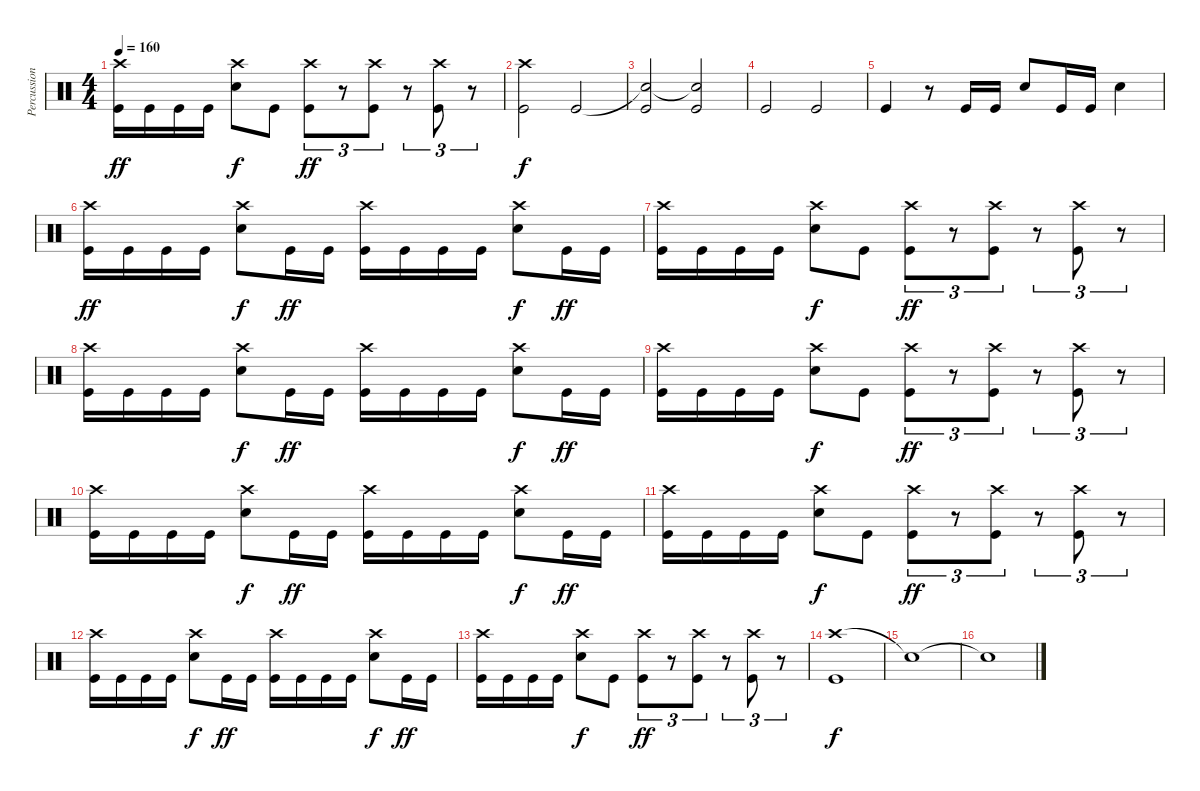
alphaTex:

\track ("Percussion" "Percussion") {instrument percussion}
\staff {score}
\articulation defaults
\ts (4 4)
\tempo 160
\clef neutral
\ks c
("Crash high (hit)" "Kick (hit)").16{dy ff} "Kick (hit)".16 "Kick (hit)".16 "Kick (hit)".16 ("Crash high (hit)" "Electric Snare (hit)").8{dy f} "Kick (hit)".8 ("Crash high (hit)" "Kick (hit)").8{tu (3 2) dy ff} r.8{tu (3 2)} ("Crash high (hit)" "Kick (hit)").8{tu (3 2)} r.8{tu (3 2)} ("Crash high (hit)" "Kick (hit)").8{tu (3 2)} r.8{tu (3 2)} |
("Crash high (hit)" "Kick (hit)").2{dy f} "Kick (hit)".2 |
("Snare (hit)"{t} "Kick (hit)").2 ("Snare (hit)"{t} "Kick (hit)").2 |
"Kick (hit)".2 "Kick (hit)".2 |
"Kick (hit)".4 r.8 "Kick (hit)".16 "Kick (hit)".16 "Electric Snare (hit)".8 "Kick (hit)".16 "Kick (hit)".16 "Electric Snare (hit)".4 |
("Crash high (hit)" "Kick (hit)").16{dy ff} "Kick (hit)".16 "Kick (hit)".16 "Kick (hit)".16 ("Crash high (hit)" "Electric Snare (hit)").8{dy f} "Kick (hit)".16{dy ff} "Kick (hit)".16 ("Crash high (hit)" "Kick (hit)").16 "Kick (hit)".16 "Kick (hit)".16 "Kick (hit)".16 ("Crash high (hit)" "Electric Snare (hit)").8{dy f} "Kick (hit)".16{dy ff} "Kick (hit)".16 |
("Crash high (hit)" "Kick (hit)").16 "Kick (hit)".16 "Kick (hit)".16 "Kick (hit)".16 ("Crash high (hit)" "Electric Snare (hit)").8{dy f} "Kick (hit)".8 ("Crash high (hit)" "Kick (hit)").8{tu (3 2) dy ff} r.8{tu (3 2)} ("Crash high (hit)" "Kick (hit)").8{tu (3 2)} r.8{tu (3 2)} ("Crash high (hit)" "Kick (hit)").8{tu (3 2)} r.8{tu (3 2)} |
("Crash high (hit)" "Kick (hit)").16 "Kick (hit)".16 "Kick (hit)".16 "Kick (hit)".16 ("Crash high (hit)" "Electric Snare (hit)").8{dy f} "Kick (hit)".16{dy ff} "Kick (hit)".16 ("Crash high (hit)" "Kick (hit)").16 "Kick (hit)".16 "Kick (hit)".16 "Kick (hit)".16 ("Crash high (hit)" "Electric Snare (hit)").8{dy f} "Kick (hit)".16{dy ff} "Kick (hit)".16 |
("Crash high (hit)" "Kick (hit)").16 "Kick (hit)".16 "Kick (hit)".16 "Kick (hit)".16 ("Crash high (hit)" "Electric Snare (hit)").8{dy f} "Kick (hit)".8 ("Crash high (hit)" "Kick (hit)").8{tu (3 2) dy ff} r.8{tu (3 2)} ("Crash high (hit)" "Kick (hit)").8{tu (3 2)} r.8{tu (3 2)} ("Crash high (hit)" "Kick (hit)").8{tu (3 2)} r.8{tu (3 2)} |
("Crash high (hit)" "Kick (hit)").16 "Kick (hit)".16 "Kick (hit)".16 "Kick (hit)".16 ("Crash high (hit)" "Electric Snare (hit)").8{dy f} "Kick (hit)".16{dy ff} "Kick (hit)".16 ("Crash high (hit)" "Kick (hit)").16 "Kick (hit)".16 "Kick (hit)".16 "Kick (hit)".16 ("Crash high (hit)" "Electric Snare (hit)").8{dy f} "Kick (hit)".16{dy ff} "Kick (hit)".16 |
("Crash high (hit)" "Kick (hit)").16 "Kick (hit)".16 "Kick (hit)".16 "Kick (hit)".16 ("Crash high (hit)" "Electric Snare (hit)").8{dy f} "Kick (hit)".8 ("Crash high (hit)" "Kick (hit)").8{tu (3 2) dy ff} r.8{tu (3 2)} ("Crash high (hit)" "Kick (hit)").8{tu (3 2)} r.8{tu (3 2)} ("Crash high (hit)" "Kick (hit)").8{tu (3 2)} r.8{tu (3 2)} |
("Crash high (hit)" "Kick (hit)").16 "Kick (hit)".16 "Kick (hit)".16 "Kick (hit)".16 ("Crash high (hit)" "Electric Snare (hit)").8{dy f} "Kick (hit)".16{dy ff} "Kick (hit)".16 ("Crash high (hit)" "Kick (hit)").16 "Kick (hit)".16 "Kick (hit)".16 "Kick (hit)".16 ("Crash high (hit)" "Electric Snare (hit)").8{dy f} "Kick (hit)".16{dy ff} "Kick (hit)".16 |
("Crash high (hit)" "Kick (hit)").16 "Kick (hit)".16 "Kick (hit)".16 "Kick (hit)".16 ("Crash high (hit)" "Electric Snare (hit)").8{dy f} "Kick (hit)".8 ("Crash high (hit)" "Kick (hit)").8{tu (3 2) dy ff} r.8{tu (3 2)} ("Crash high (hit)" "Kick (hit)").8{tu (3 2)} r.8{tu (3 2)} ("Crash high (hit)" "Kick (hit)").8{tu (3 2)} r.8{tu (3 2)} |
("Crash high (hit)" "Kick (hit)").1{dy f} |
"Snare (hit)"{t}.1 |
"Snare (hit)"{t}.1
